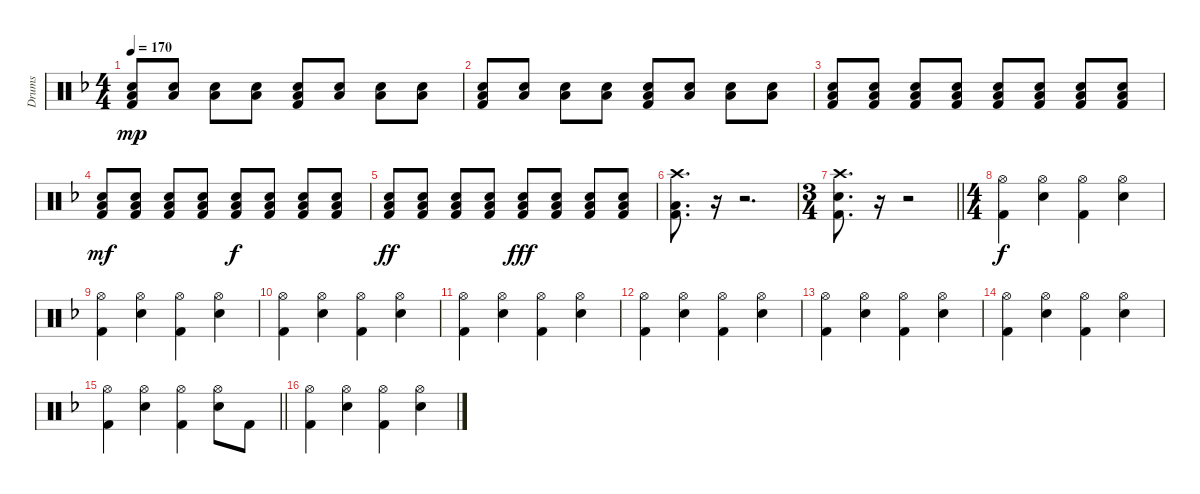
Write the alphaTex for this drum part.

\track ("Drums" "Drums") {instrument percussion}
\staff {score}
\articulation defaults
\ts (4 4)
\tempo 170
\clef neutral
\ks f
("Low Floor Tom (hit)" "Electric Snare (hit)" "Kick (hit) 2").8{dy mp} ("Low Floor Tom (hit)" "Electric Snare (hit)").8 ("Low Floor Tom (hit)" "Electric Snare (hit)").8 ("Low Floor Tom (hit)" "Electric Snare (hit)").8 ("Low Floor Tom (hit)" "Electric Snare (hit)" "Kick (hit) 2").8 ("Low Floor Tom (hit)" "Electric Snare (hit)").8 ("Low Floor Tom (hit)" "Electric Snare (hit)").8 ("Low Floor Tom (hit)" "Electric Snare (hit)").8 |
("Low Floor Tom (hit)" "Electric Snare (hit)" "Kick (hit) 2").8 ("Low Floor Tom (hit)" "Electric Snare (hit)").8 ("Low Floor Tom (hit)" "Electric Snare (hit)").8 ("Low Floor Tom (hit)" "Electric Snare (hit)").8 ("Low Floor Tom (hit)" "Electric Snare (hit)" "Kick (hit) 2").8 ("Low Floor Tom (hit)" "Electric Snare (hit)").8 ("Low Floor Tom (hit)" "Electric Snare (hit)").8 ("Low Floor Tom (hit)" "Electric Snare (hit)").8 |
("Low Floor Tom (hit)" "Electric Snare (hit)" "Kick (hit) 2").8 ("Low Floor Tom (hit)" "Electric Snare (hit)" "Kick (hit) 2").8 ("Low Floor Tom (hit)" "Electric Snare (hit)" "Kick (hit) 2").8 ("Low Floor Tom (hit)" "Electric Snare (hit)" "Kick (hit) 2").8 ("Low Floor Tom (hit)" "Electric Snare (hit)" "Kick (hit) 2").8 ("Low Floor Tom (hit)" "Electric Snare (hit)" "Kick (hit) 2").8 ("Low Floor Tom (hit)" "Electric Snare (hit)" "Kick (hit) 2").8 ("Low Floor Tom (hit)" "Electric Snare (hit)" "Kick (hit) 2").8 |
("Low Floor Tom (hit)" "Electric Snare (hit)" "Kick (hit) 2").8{dy mf} ("Low Floor Tom (hit)" "Electric Snare (hit)" "Kick (hit) 2").8 ("Low Floor Tom (hit)" "Electric Snare (hit)" "Kick (hit) 2").8 ("Low Floor Tom (hit)" "Electric Snare (hit)" "Kick (hit) 2").8 ("Low Floor Tom (hit)" "Electric Snare (hit)" "Kick (hit) 2").8{dy f} ("Low Floor Tom (hit)" "Electric Snare (hit)" "Kick (hit) 2").8 ("Low Floor Tom (hit)" "Electric Snare (hit)" "Kick (hit) 2").8 ("Low Floor Tom (hit)" "Electric Snare (hit)" "Kick (hit) 2").8 |
("Low Floor Tom (hit)" "Electric Snare (hit)" "Kick (hit) 2").8{dy ff} ("Low Floor Tom (hit)" "Electric Snare (hit)" "Kick (hit) 2").8 ("Low Floor Tom (hit)" "Electric Snare (hit)" "Kick (hit) 2").8 ("Low Floor Tom (hit)" "Electric Snare (hit)" "Kick (hit) 2").8 ("Low Floor Tom (hit)" "Electric Snare (hit)" "Kick (hit) 2").8{dy fff} ("Low Floor Tom (hit)" "Electric Snare (hit)" "Kick (hit) 2").8 ("Low Floor Tom (hit)" "Electric Snare (hit)" "Kick (hit) 2").8 ("Low Floor Tom (hit)" "Electric Snare (hit)" "Kick (hit) 2").8 |
("Crash high (hit)" "Low Floor Tom (hit)" "Kick (hit) 2").8{d} r.16 r.2{d} |
\ts (3 4)
\barLineRight lightlight
("Crash high (hit)" "Electric Snare (hit)" "Kick (hit) 2").8{d} r.16 r.2 |
\ts (4 4)
("Hi-Hat (open)" "Kick (hit) 2").4{dy f} ("Hi-Hat (open)" "Electric Snare (hit)").4 ("Hi-Hat (open)" "Kick (hit) 2").4 ("Hi-Hat (open)" "Electric Snare (hit)").4 |
("Hi-Hat (open)" "Kick (hit) 2").4 ("Hi-Hat (open)" "Electric Snare (hit)").4 ("Hi-Hat (open)" "Kick (hit) 2").4 ("Hi-Hat (open)" "Electric Snare (hit)").4 |
("Hi-Hat (open)" "Kick (hit) 2").4 ("Hi-Hat (open)" "Electric Snare (hit)").4 ("Hi-Hat (open)" "Kick (hit) 2").4 ("Hi-Hat (open)" "Electric Snare (hit)").4 |
("Hi-Hat (open)" "Kick (hit) 2").4 ("Hi-Hat (open)" "Electric Snare (hit)").4 ("Hi-Hat (open)" "Kick (hit) 2").4 ("Hi-Hat (open)" "Electric Snare (hit)").4 |
("Hi-Hat (open)" "Kick (hit) 2").4 ("Hi-Hat (open)" "Electric Snare (hit)").4 ("Hi-Hat (open)" "Kick (hit) 2").4 ("Hi-Hat (open)" "Electric Snare (hit)").4 |
("Hi-Hat (open)" "Kick (hit) 2").4 ("Hi-Hat (open)" "Electric Snare (hit)").4 ("Hi-Hat (open)" "Kick (hit) 2").4 ("Hi-Hat (open)" "Electric Snare (hit)").4 |
("Hi-Hat (open)" "Kick (hit) 2").4 ("Hi-Hat (open)" "Electric Snare (hit)").4 ("Hi-Hat (open)" "Kick (hit) 2").4 ("Hi-Hat (open)" "Electric Snare (hit)").4 |
\barLineRight lightlight
("Hi-Hat (open)" "Kick (hit) 2").4 ("Hi-Hat (open)" "Electric Snare (hit)").4 ("Hi-Hat (open)" "Kick (hit) 2").4 ("Hi-Hat (open)" "Electric Snare (hit)").8 "Kick (hit) 2".8 |
("Hi-Hat (open)" "Kick (hit) 2").4 ("Hi-Hat (open)" "Electric Snare (hit)").4 ("Hi-Hat (open)" "Kick (hit) 2").4 ("Hi-Hat (open)" "Electric Snare (hit)").4
